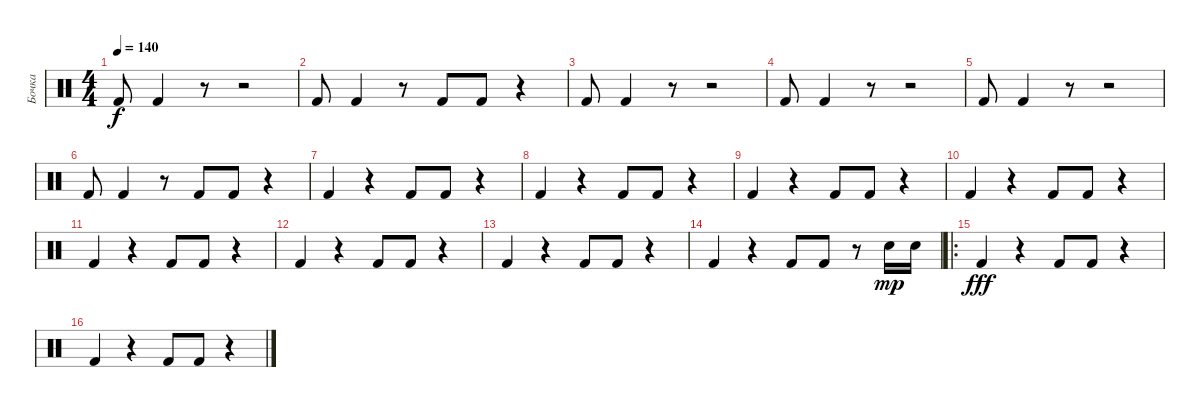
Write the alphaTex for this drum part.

\track ("Бочка" "Бочка") {instrument percussion}
\staff {score}
\articulation defaults
\ts (4 4)
\tempo 140
\clef neutral
\ks c "Kick (hit) 2".8{dy f} "Kick (hit) 2".4
r.8 r.2 |
"Kick (hit) 2".8 "Kick (hit) 2".4 r.8 "Kick (hit) 2".8 "Kick (hit) 2".8 r.4 |
"Kick (hit) 2".8 "Kick (hit) 2".4 r.8 r.2 |
"Kick (hit) 2".8 "Kick (hit) 2".4 r.8 r.2 |
"Kick (hit) 2".8 "Kick (hit) 2".4 r.8 r.2 |
"Kick (hit) 2".8 "Kick (hit) 2".4 r.8 "Kick (hit) 2".8 "Kick (hit) 2".8 r.4 |
"Kick (hit) 2".4 r.4 "Kick (hit) 2".8 "Kick (hit) 2".8 r.4 |
"Kick (hit) 2".4 r.4 "Kick (hit) 2".8 "Kick (hit) 2".8 r.4 |
"Kick (hit) 2".4 r.4 "Kick (hit) 2".8 "Kick (hit) 2".8 r.4 |
"Kick (hit) 2".4 r.4 "Kick (hit) 2".8 "Kick (hit) 2".8 r.4 |
"Kick (hit) 2".4 r.4 "Kick (hit) 2".8 "Kick (hit) 2".8 r.4 |
"Kick (hit) 2".4 r.4 "Kick (hit) 2".8 "Kick (hit) 2".8 r.4 |
"Kick (hit) 2".4 r.4 "Kick (hit) 2".8 "Kick (hit) 2".8 r.4 |
"Kick (hit) 2".4 r.4 "Kick (hit) 2".8 "Kick (hit) 2".8 r.8 "Electric Snare (hit)".16{dy mp} "Electric Snare (hit)".16 |
\ro "Kick (hit) 2".4{dy fff}
r.4 "Kick (hit) 2".8 "Kick (hit) 2".8 r.4 |
"Kick (hit) 2".4 r.4 "Kick (hit) 2".8 "Kick (hit) 2".8 r.4
